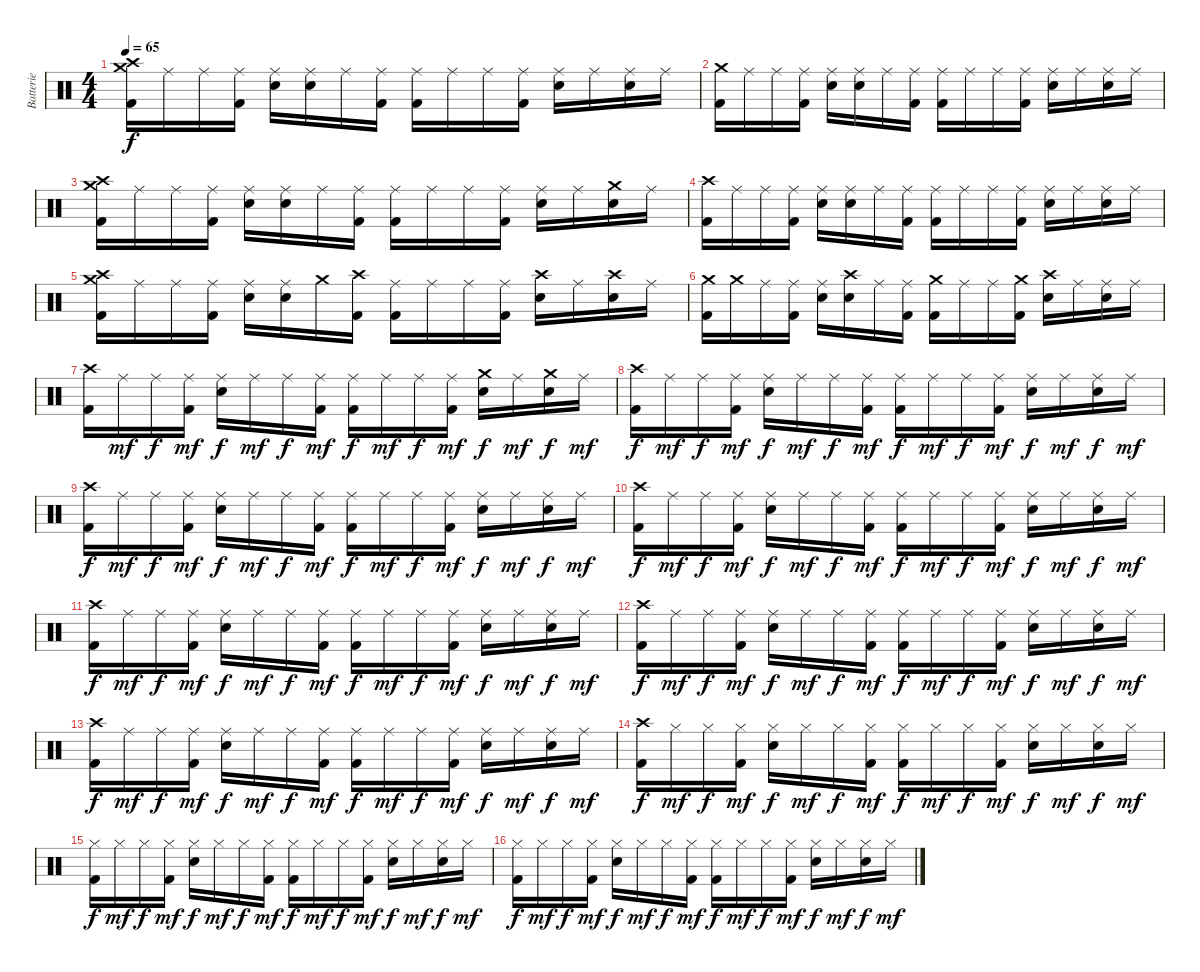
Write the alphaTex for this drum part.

\track ("Batterie" "Batterie") {instrument percussion}
\staff {score}
\articulation defaults
\ts (4 4)
\tempo 65
\clef neutral
\ks c
("Crash high (hit)" "Crash medium (hit)" "Kick (hit) 2").16{dy f} "Ride (middle)".16 "Ride (middle)".16 ("Ride (middle)" "Kick (hit) 2").16 ("Ride (middle)" "Electric Snare (hit)").16 ("Ride (middle)" "Electric Snare (hit)").16 "Ride (middle)".16 ("Ride (middle)" "Kick (hit) 2").16 ("Ride (middle)" "Kick (hit) 2").16 "Ride (middle)".16 "Ride (middle)".16 ("Ride (middle)" "Kick (hit) 2").16 ("Ride (middle)" "Electric Snare (hit)").16 "Ride (middle)".16 ("Ride (middle)" "Electric Snare (hit)").16 "Ride (middle)".16 |
("Crash medium (hit)" "Kick (hit) 2").16 "Ride (middle)".16 "Ride (middle)".16 ("Ride (middle)" "Kick (hit) 2").16 ("Ride (middle)" "Electric Snare (hit)").16 ("Ride (middle)" "Electric Snare (hit)").16 "Ride (middle)".16 ("Ride (middle)" "Kick (hit) 2").16 ("Ride (middle)" "Kick (hit) 2").16 "Ride (middle)".16 "Ride (middle)".16 ("Ride (middle)" "Kick (hit) 2").16 ("Ride (middle)" "Electric Snare (hit)").16 "Ride (middle)".16 ("Ride (middle)" "Electric Snare (hit)").16 "Ride (middle)".16 |
("Crash high (hit)" "Crash medium (hit)" "Kick (hit) 2").16 "Ride (middle)".16 "Ride (middle)".16 ("Ride (middle)" "Kick (hit) 2").16 ("Ride (middle)" "Electric Snare (hit)").16 ("Ride (middle)" "Electric Snare (hit)").16 "Ride (middle)".16 ("Ride (middle)" "Kick (hit) 2").16 ("Ride (middle)" "Kick (hit) 2").16 "Ride (middle)".16 "Ride (middle)".16 ("Ride (middle)" "Kick (hit) 2").16 ("Ride (middle)" "Electric Snare (hit)").16 "Ride (middle)".16 ("Crash medium (hit)" "Electric Snare (hit)").16 "Ride (middle)".16 |
("Crash high (hit)" "Kick (hit) 2").16 "Ride (middle)".16 "Ride (middle)".16 ("Ride (middle)" "Kick (hit) 2").16 ("Ride (middle)" "Electric Snare (hit)").16 ("Ride (middle)" "Electric Snare (hit)").16 "Ride (middle)".16 ("Ride (middle)" "Kick (hit) 2").16 ("Ride (middle)" "Kick (hit) 2").16 "Ride (middle)".16 "Ride (middle)".16 ("Ride (middle)" "Kick (hit) 2").16 ("Ride (middle)" "Electric Snare (hit)").16 "Ride (middle)".16 ("Ride (middle)" "Electric Snare (hit)").16 "Ride (middle)".16 |
("Crash high (hit)" "Crash medium (hit)" "Kick (hit) 2").16 "Ride (middle)".16 "Ride (middle)".16 ("Ride (middle)" "Kick (hit) 2").16 ("Ride (middle)" "Electric Snare (hit)").16 ("Ride (middle)" "Electric Snare (hit)").16 "Crash medium (hit)".16 ("Crash high (hit)" "Kick (hit) 2").16 ("Ride (middle)" "Kick (hit) 2").16 "Ride (middle)".16 "Ride (middle)".16 ("Ride (middle)" "Kick (hit) 2").16 ("Crash high (hit)" "Electric Snare (hit)").16 "Ride (middle)".16 ("Crash high (hit)" "Electric Snare (hit)").16 "Ride (middle)".16 |
("Crash medium (hit)" "Kick (hit) 2").16 "Crash medium (hit)".16 "Ride (middle)".16 ("Ride (middle)" "Kick (hit) 2").16 ("Ride (middle)" "Electric Snare (hit)").16 ("Crash high (hit)" "Electric Snare (hit)").16 "Ride (middle)".16 ("Ride (middle)" "Kick (hit) 2").16 ("Crash medium (hit)" "Kick (hit) 2").16 "Ride (middle)".16 "Ride (middle)".16 ("Crash medium (hit)" "Kick (hit) 2").16 ("Crash high (hit)" "Electric Snare (hit)").16 "Ride (middle)".16 ("Ride (middle)" "Electric Snare (hit)").16 "Ride (middle)".16 |
("Crash high (hit)" "Kick (hit) 2").16 "Ride (middle)".16{dy mf} "Ride (middle)".16{dy f} ("Ride (middle)" "Kick (hit) 2").16{dy mf} ("Ride (middle)" "Electric Snare (hit)").16{dy f} "Ride (middle)".16{dy mf} "Ride (middle)".16{dy f} ("Ride (middle)" "Kick (hit) 2").16{dy mf} ("Ride (middle)" "Kick (hit) 2").16{dy f} "Ride (middle)".16{dy mf} "Ride (middle)".16{dy f} ("Ride (middle)" "Kick (hit) 2").16{dy mf} ("Crash medium (hit)" "Electric Snare (hit)").16{dy f} "Ride (middle)".16{dy mf} ("Crash medium (hit)" "Electric Snare (hit)").16{dy f} "Ride (middle)".16{dy mf} |
("Crash high (hit)" "Kick (hit) 2").16{dy f} "Ride (middle)".16{dy mf} "Ride (middle)".16{dy f} ("Ride (middle)" "Kick (hit) 2").16{dy mf} ("Ride (middle)" "Electric Snare (hit)").16{dy f} "Ride (middle)".16{dy mf} "Ride (middle)".16{dy f} ("Ride (middle)" "Kick (hit) 2").16{dy mf} ("Ride (middle)" "Kick (hit) 2").16{dy f} "Ride (middle)".16{dy mf} "Ride (middle)".16{dy f} ("Ride (middle)" "Kick (hit) 2").16{dy mf} ("Ride (middle)" "Electric Snare (hit)").16{dy f} "Ride (middle)".16{dy mf} ("Ride (middle)" "Electric Snare (hit)").16{dy f} "Ride (middle)".16{dy mf} |
("Crash high (hit)" "Kick (hit) 2").16{dy f} "Ride (middle)".16{dy mf} "Ride (middle)".16{dy f} ("Ride (middle)" "Kick (hit) 2").16{dy mf} ("Ride (middle)" "Electric Snare (hit)").16{dy f} "Ride (middle)".16{dy mf} "Ride (middle)".16{dy f} ("Ride (middle)" "Kick (hit) 2").16{dy mf} ("Ride (middle)" "Kick (hit) 2").16{dy f} "Ride (middle)".16{dy mf} "Ride (middle)".16{dy f} ("Ride (middle)" "Kick (hit) 2").16{dy mf} ("Ride (middle)" "Electric Snare (hit)").16{dy f} "Ride (middle)".16{dy mf} ("Ride (middle)" "Electric Snare (hit)").16{dy f} "Ride (middle)".16{dy mf} |
("Crash high (hit)" "Kick (hit) 2").16{dy f} "Ride (middle)".16{dy mf} "Ride (middle)".16{dy f} ("Ride (middle)" "Kick (hit) 2").16{dy mf} ("Ride (middle)" "Electric Snare (hit)").16{dy f} "Ride (middle)".16{dy mf} "Ride (middle)".16{dy f} ("Ride (middle)" "Kick (hit) 2").16{dy mf} ("Ride (middle)" "Kick (hit) 2").16{dy f} "Ride (middle)".16{dy mf} "Ride (middle)".16{dy f} ("Ride (middle)" "Kick (hit) 2").16{dy mf} ("Ride (middle)" "Electric Snare (hit)").16{dy f} "Ride (middle)".16{dy mf} ("Ride (middle)" "Electric Snare (hit)").16{dy f} "Ride (middle)".16{dy mf} |
("Crash high (hit)" "Kick (hit) 2").16{dy f} "Ride (middle)".16{dy mf} "Ride (middle)".16{dy f} ("Ride (middle)" "Kick (hit) 2").16{dy mf} ("Ride (middle)" "Electric Snare (hit)").16{dy f} "Ride (middle)".16{dy mf} "Ride (middle)".16{dy f} ("Ride (middle)" "Kick (hit) 2").16{dy mf} ("Ride (middle)" "Kick (hit) 2").16{dy f} "Ride (middle)".16{dy mf} "Ride (middle)".16{dy f} ("Ride (middle)" "Kick (hit) 2").16{dy mf} ("Ride (middle)" "Electric Snare (hit)").16{dy f} "Ride (middle)".16{dy mf} ("Ride (middle)" "Electric Snare (hit)").16{dy f} "Ride (middle)".16{dy mf} |
("Crash high (hit)" "Kick (hit) 2").16{dy f} "Ride (middle)".16{dy mf} "Ride (middle)".16{dy f} ("Ride (middle)" "Kick (hit) 2").16{dy mf} ("Ride (middle)" "Electric Snare (hit)").16{dy f} "Ride (middle)".16{dy mf} "Ride (middle)".16{dy f} ("Ride (middle)" "Kick (hit) 2").16{dy mf} ("Ride (middle)" "Kick (hit) 2").16{dy f} "Ride (middle)".16{dy mf} "Ride (middle)".16{dy f} ("Ride (middle)" "Kick (hit) 2").16{dy mf} ("Ride (middle)" "Electric Snare (hit)").16{dy f} "Ride (middle)".16{dy mf} ("Ride (middle)" "Electric Snare (hit)").16{dy f} "Ride (middle)".16{dy mf} |
("Crash high (hit)" "Kick (hit) 2").16{dy f} "Ride (middle)".16{dy mf} "Ride (middle)".16{dy f} ("Ride (middle)" "Kick (hit) 2").16{dy mf} ("Ride (middle)" "Electric Snare (hit)").16{dy f} "Ride (middle)".16{dy mf} "Ride (middle)".16{dy f} ("Ride (middle)" "Kick (hit) 2").16{dy mf} ("Ride (middle)" "Kick (hit) 2").16{dy f} "Ride (middle)".16{dy mf} "Ride (middle)".16{dy f} ("Ride (middle)" "Kick (hit) 2").16{dy mf} ("Ride (middle)" "Electric Snare (hit)").16{dy f} "Ride (middle)".16{dy mf} ("Ride (middle)" "Electric Snare (hit)").16{dy f} "Ride (middle)".16{dy mf} |
("Crash high (hit)" "Kick (hit) 2").16{dy f} "Hi-Hat (closed)".16{dy mf} "Hi-Hat (closed)".16{dy f} ("Hi-Hat (closed)" "Kick (hit) 2").16{dy mf} ("Hi-Hat (closed)" "Electric Snare (hit)").16{dy f} "Hi-Hat (closed)".16{dy mf} "Hi-Hat (closed)".16{dy f} ("Hi-Hat (closed)" "Kick (hit) 2").16{dy mf} ("Hi-Hat (closed)" "Kick (hit) 2").16{dy f} "Hi-Hat (closed)".16{dy mf} "Hi-Hat (closed)".16{dy f} ("Hi-Hat (closed)" "Kick (hit) 2").16{dy mf} ("Hi-Hat (closed)" "Electric Snare (hit)").16{dy f} "Hi-Hat (closed)".16{dy mf} ("Hi-Hat (closed)" "Electric Snare (hit)").16{dy f} "Hi-Hat (closed)".16{dy mf} |
("Hi-Hat (closed)" "Kick (hit) 2").16{dy f} "Hi-Hat (closed)".16{dy mf} "Hi-Hat (closed)".16{dy f} ("Hi-Hat (closed)" "Kick (hit) 2").16{dy mf} ("Hi-Hat (closed)" "Electric Snare (hit)").16{dy f} "Hi-Hat (closed)".16{dy mf} "Hi-Hat (closed)".16{dy f} ("Hi-Hat (closed)" "Kick (hit) 2").16{dy mf} ("Hi-Hat (closed)" "Kick (hit) 2").16{dy f} "Hi-Hat (closed)".16{dy mf} "Hi-Hat (closed)".16{dy f} ("Hi-Hat (closed)" "Kick (hit) 2").16{dy mf} ("Hi-Hat (closed)" "Electric Snare (hit)").16{dy f} "Hi-Hat (closed)".16{dy mf} ("Hi-Hat (closed)" "Electric Snare (hit)").16{dy f} "Hi-Hat (closed)".16{dy mf} |
("Hi-Hat (closed)" "Kick (hit) 2").16{dy f} "Hi-Hat (closed)".16{dy mf} "Hi-Hat (closed)".16{dy f} ("Hi-Hat (closed)" "Kick (hit) 2").16{dy mf} ("Hi-Hat (closed)" "Electric Snare (hit)").16{dy f} "Hi-Hat (closed)".16{dy mf} "Hi-Hat (closed)".16{dy f} ("Hi-Hat (closed)" "Kick (hit) 2").16{dy mf} ("Hi-Hat (closed)" "Kick (hit) 2").16{dy f} "Hi-Hat (closed)".16{dy mf} "Hi-Hat (closed)".16{dy f} ("Hi-Hat (closed)" "Kick (hit) 2").16{dy mf} ("Hi-Hat (closed)" "Electric Snare (hit)").16{dy f} "Hi-Hat (closed)".16{dy mf} ("Hi-Hat (closed)" "Electric Snare (hit)").16{dy f} "Hi-Hat (closed)".16{dy mf}
